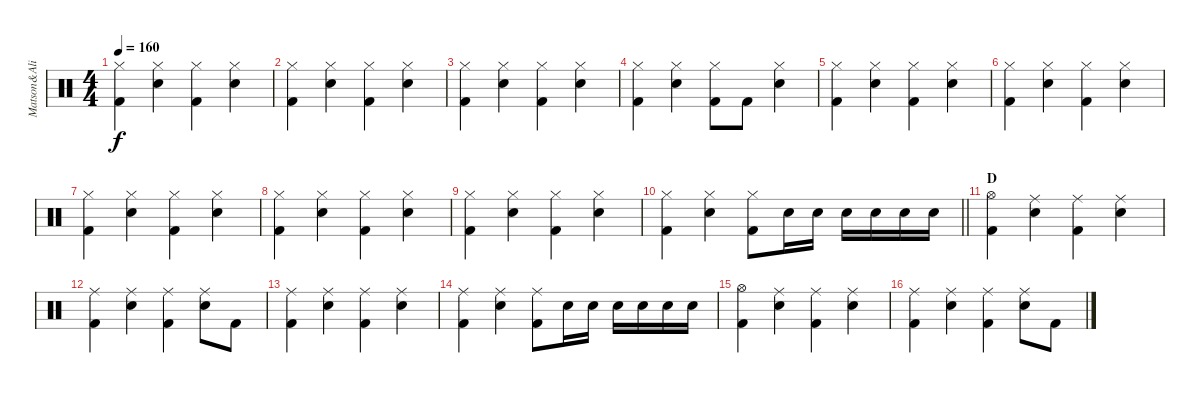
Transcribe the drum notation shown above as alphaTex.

\track ("Matson&Ali" "Matson&Ali") {instrument percussion}
\staff {score}
\articulation defaults
\ts (4 4)
\tempo 160
\clef neutral
\ks c
("Hi-Hat (closed)" "Kick (hit) 2").4{dy f} ("Hi-Hat (closed)" "Snare (hit) 2").4 ("Hi-Hat (closed)" "Kick (hit) 2").4 ("Hi-Hat (closed)" "Snare (hit) 2").4 |
("Hi-Hat (closed)" "Kick (hit) 2").4 ("Hi-Hat (closed)" "Snare (hit) 2").4 ("Hi-Hat (closed)" "Kick (hit) 2").4 ("Hi-Hat (closed)" "Snare (hit) 2").4 |
("Hi-Hat (closed)" "Kick (hit) 2").4 ("Hi-Hat (closed)" "Snare (hit) 2").4 ("Hi-Hat (closed)" "Kick (hit) 2").4 ("Hi-Hat (closed)" "Snare (hit) 2").4 |
("Hi-Hat (closed)" "Kick (hit) 2").4 ("Hi-Hat (closed)" "Snare (hit) 2").4 ("Hi-Hat (closed)" "Kick (hit) 2").8 "Kick (hit) 2".8 ("Hi-Hat (closed)" "Snare (hit) 2").4 |
("Hi-Hat (closed)" "Kick (hit) 2").4 ("Hi-Hat (closed)" "Snare (hit) 2").4 ("Hi-Hat (closed)" "Kick (hit) 2").4 ("Hi-Hat (closed)" "Snare (hit) 2").4 |
("Hi-Hat (closed)" "Kick (hit) 2").4 ("Hi-Hat (closed)" "Snare (hit) 2").4 ("Hi-Hat (closed)" "Kick (hit) 2").4 ("Hi-Hat (closed)" "Snare (hit) 2").4 |
("Hi-Hat (closed)" "Kick (hit) 2").4 ("Hi-Hat (closed)" "Snare (hit) 2").4 ("Hi-Hat (closed)" "Kick (hit) 2").4 ("Hi-Hat (closed)" "Snare (hit) 2").4 |
("Hi-Hat (closed)" "Kick (hit) 2").4 ("Hi-Hat (closed)" "Snare (hit) 2").4 ("Hi-Hat (closed)" "Kick (hit) 2").4 ("Hi-Hat (closed)" "Snare (hit) 2").4 |
("Hi-Hat (closed)" "Kick (hit) 2").4 ("Hi-Hat (closed)" "Snare (hit) 2").4 ("Hi-Hat (closed)" "Kick (hit) 2").4 ("Hi-Hat (closed)" "Snare (hit) 2").4 |
\barLineRight lightlight
("Hi-Hat (closed)" "Kick (hit) 2").4 ("Hi-Hat (closed)" "Snare (hit) 2").4 ("Hi-Hat (closed)" "Kick (hit) 2").8 "Snare (hit) 2".16 "Snare (hit) 2".16 "Snare (hit) 2".16 "Snare (hit) 2".16 "Snare (hit) 2".16 "Snare (hit) 2".16 |
\section ("" "D")
("Hi-Hat (open)" "Kick (hit) 2").4 ("Ride (middle)" "Snare (hit) 2").4 ("Ride (middle)" "Kick (hit) 2").4 ("Ride (middle)" "Snare (hit) 2").4 |
("Ride (middle)" "Kick (hit) 2").4 ("Ride (middle)" "Snare (hit) 2").4 ("Ride (middle)" "Kick (hit) 2").4 ("Ride (middle)" "Snare (hit) 2").8 "Kick (hit) 2".8 |
("Ride (middle)" "Kick (hit) 2").4 ("Ride (middle)" "Snare (hit) 2").4 ("Ride (middle)" "Kick (hit) 2").4 ("Ride (middle)" "Snare (hit) 2").4 |
("Ride (middle)" "Kick (hit) 2").4 ("Ride (middle)" "Snare (hit) 2").4 ("Ride (middle)" "Kick (hit) 2").8 "Snare (hit) 2".16 "Snare (hit) 2".16 "Snare (hit) 2".16 "Snare (hit) 2".16 "Snare (hit) 2".16 "Snare (hit) 2".16 |
("Hi-Hat (open)" "Kick (hit) 2").4 ("Ride (middle)" "Snare (hit) 2").4 ("Ride (middle)" "Kick (hit) 2").4 ("Ride (middle)" "Snare (hit) 2").4 |
("Ride (middle)" "Kick (hit) 2").4 ("Ride (middle)" "Snare (hit) 2").4 ("Ride (middle)" "Kick (hit) 2").4 ("Ride (middle)" "Snare (hit) 2").8 "Kick (hit) 2".8
